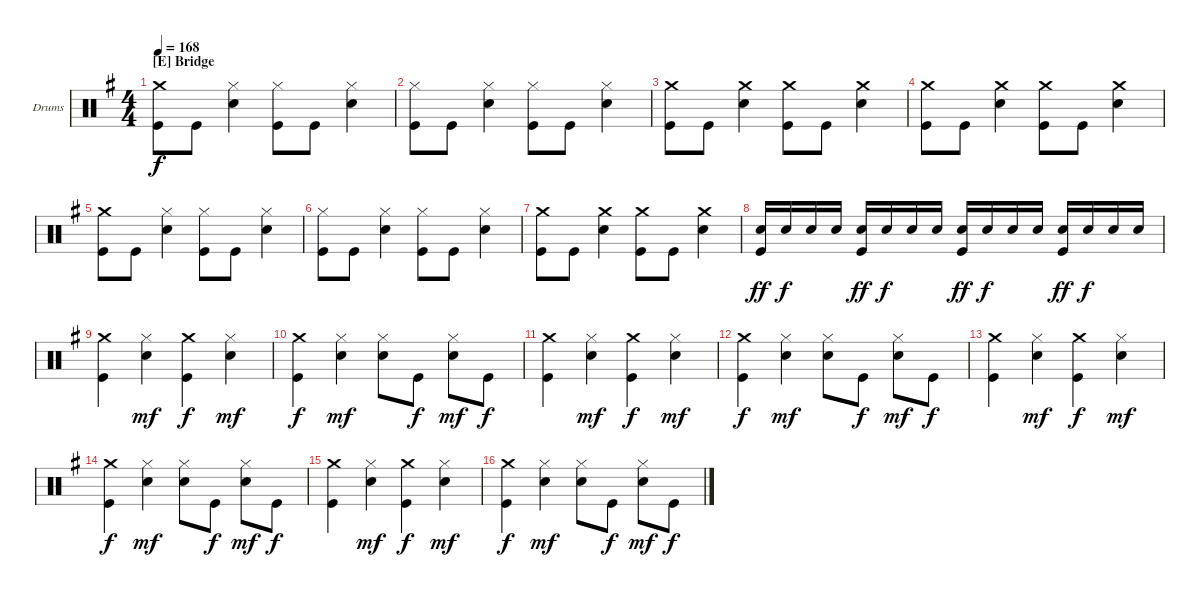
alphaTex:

\defaultSystemsLayout 4
\bracketExtendMode groupsimilarinstruments
\firstSystemTrackNameOrientation horizontal
\otherSystemsTrackNameOrientation horizontal
\track ("Drumkit" "Drums") {instrument percussion}
\staff {score}
\articulation defaults
\ts (4 4)
\section ("E" "Bridge")
\tempo 168
\clef neutral
\ks g
("Crash medium (hit)" "Kick (hit)").8{dy f} "Kick (hit)".8 ("Hi-Hat (closed)" "Snare (hit) 2").4 ("Hi-Hat (closed)" "Kick (hit)").8 "Kick (hit)".8 ("Hi-Hat (closed)" "Snare (hit) 2").4 |
("Hi-Hat (closed)" "Kick (hit)").8 "Kick (hit)".8 ("Hi-Hat (closed)" "Snare (hit) 2").4 ("Hi-Hat (closed)" "Kick (hit)").8 "Kick (hit)".8 ("Hi-Hat (closed)" "Snare (hit) 2").4 |
("Crash medium (hit)" "Kick (hit)").8 "Kick (hit)".8 ("Crash medium (hit)" "Snare (hit) 2").4 ("Crash medium (hit)" "Kick (hit)").8 "Kick (hit)".8 ("Crash medium (hit)" "Snare (hit) 2").4 |
("Crash medium (hit)" "Kick (hit)").8 "Kick (hit)".8 ("Crash medium (hit)" "Snare (hit) 2").4 ("Crash medium (hit)" "Kick (hit)").8 "Kick (hit)".8 ("Crash medium (hit)" "Snare (hit) 2").4 |
("Crash medium (hit)" "Kick (hit)").8 "Kick (hit)".8 ("Hi-Hat (closed)" "Snare (hit) 2").4 ("Hi-Hat (closed)" "Kick (hit)").8 "Kick (hit)".8 ("Hi-Hat (closed)" "Snare (hit) 2").4 |
("Hi-Hat (closed)" "Kick (hit)").8 "Kick (hit)".8 ("Hi-Hat (closed)" "Snare (hit) 2").4 ("Hi-Hat (closed)" "Kick (hit)").8 "Kick (hit)".8 ("Hi-Hat (closed)" "Snare (hit) 2").4 |
("Crash medium (hit)" "Kick (hit)").8 "Kick (hit)".8 ("Crash medium (hit)" "Snare (hit) 2").4 ("Crash medium (hit)" "Kick (hit)").8 "Kick (hit)".8 ("Crash medium (hit)" "Snare (hit) 2").4 |
("Snare (hit) 2" "Kick (hit)").16{dy ff} "Snare (hit) 2".16{dy f} "Snare (hit) 2".16 "Snare (hit) 2".16 ("Snare (hit) 2" "Kick (hit)").16{dy ff} "Snare (hit) 2".16{dy f} "Snare (hit) 2".16 "Snare (hit) 2".16 ("Snare (hit) 2" "Kick (hit)").16{dy ff} "Snare (hit) 2".16{dy f} "Snare (hit) 2".16 "Snare (hit) 2".16 ("Snare (hit) 2" "Kick (hit)").16{dy ff} "Snare (hit) 2".16{dy f} "Snare (hit) 2".16 "Snare (hit) 2".16 |
("Crash medium (hit)" "Kick (hit)").4 ("Hi-Hat (closed)" "Snare (hit) 2").4{dy mf} ("Crash medium (hit)" "Kick (hit)").4{dy f} ("Hi-Hat (closed)" "Snare (hit) 2").4{dy mf} |
("Crash medium (hit)" "Kick (hit)").4{dy f} ("Hi-Hat (closed)" "Snare (hit) 2").4{dy mf} ("Hi-Hat (closed)" "Snare (hit) 2").8 "Kick (hit)".8{dy f} ("Hi-Hat (closed)" "Snare (hit) 2").8{dy mf} "Kick (hit)".8{dy f} |
("Crash medium (hit)" "Kick (hit)").4 ("Hi-Hat (closed)" "Snare (hit) 2").4{dy mf} ("Crash medium (hit)" "Kick (hit)").4{dy f} ("Hi-Hat (closed)" "Snare (hit) 2").4{dy mf} |
("Crash medium (hit)" "Kick (hit)").4{dy f} ("Hi-Hat (closed)" "Snare (hit) 2").4{dy mf} ("Hi-Hat (closed)" "Snare (hit) 2").8 "Kick (hit)".8{dy f} ("Hi-Hat (closed)" "Snare (hit) 2").8{dy mf} "Kick (hit)".8{dy f} |
("Crash medium (hit)" "Kick (hit)").4 ("Hi-Hat (closed)" "Snare (hit) 2").4{dy mf} ("Crash medium (hit)" "Kick (hit)").4{dy f} ("Hi-Hat (closed)" "Snare (hit) 2").4{dy mf} |
("Crash medium (hit)" "Kick (hit)").4{dy f} ("Hi-Hat (closed)" "Snare (hit) 2").4{dy mf} ("Hi-Hat (closed)" "Snare (hit) 2").8 "Kick (hit)".8{dy f} ("Hi-Hat (closed)" "Snare (hit) 2").8{dy mf} "Kick (hit)".8{dy f} |
("Crash medium (hit)" "Kick (hit)").4 ("Hi-Hat (closed)" "Snare (hit) 2").4{dy mf} ("Crash medium (hit)" "Kick (hit)").4{dy f} ("Hi-Hat (closed)" "Snare (hit) 2").4{dy mf} |
("Crash medium (hit)" "Kick (hit)").4{dy f} ("Hi-Hat (closed)" "Snare (hit) 2").4{dy mf} ("Hi-Hat (closed)" "Snare (hit) 2").8 "Kick (hit)".8{dy f} ("Hi-Hat (closed)" "Snare (hit) 2").8{dy mf} "Kick (hit)".8{dy f}
